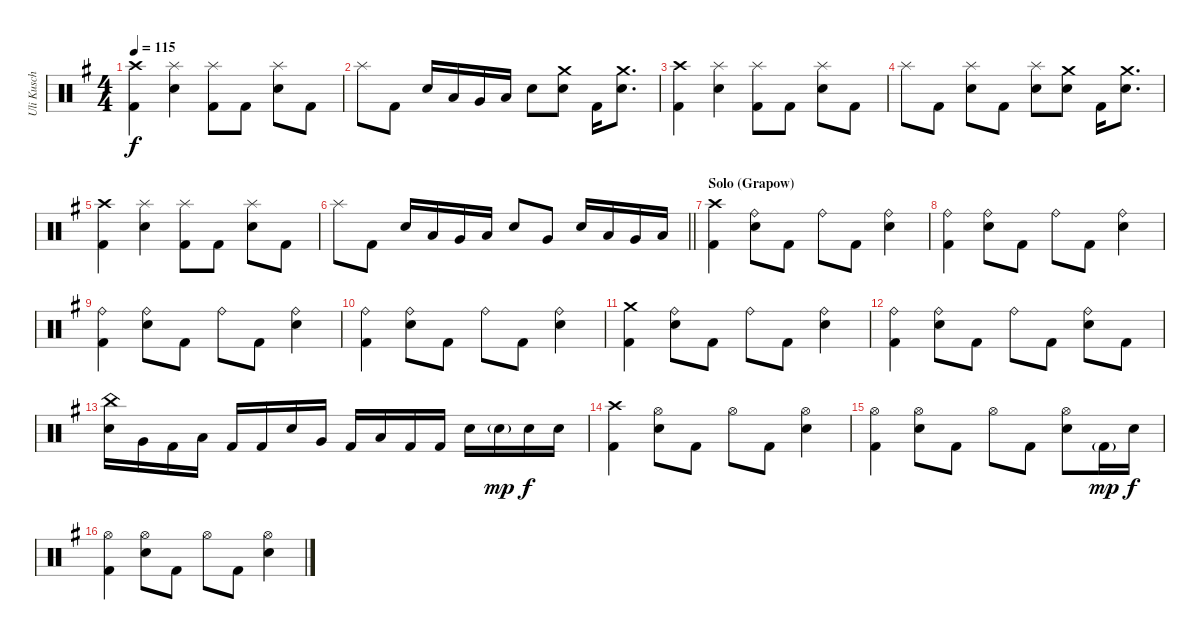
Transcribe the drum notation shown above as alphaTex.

\track ("Uli Kusch" "Uli Kusch") {instrument percussion}
\staff {score}
\articulation defaults
\ts (4 4)
\tempo 115
\clef neutral
\ks eminor
("Crash high (hit)" "Kick (hit) 2").4{dy f} ("Splash (hit)" "Snare (hit) 2").4 ("Splash (hit)" "Kick (hit) 2").8 "Kick (hit) 2".8 ("Splash (hit)" "Snare (hit) 2").8 "Kick (hit) 2".8 |
"Splash (hit)".8 "Kick (hit) 2".8 "Electric Snare (hit)".16 "Low Tom (hit)".16 "Very Low Tom (hit)".16 "Low Floor Tom (hit)".16 "Electric Snare (hit)".8 ("Crash medium (hit)" "Snare (hit) 2").8 "Kick (hit) 2".16 ("Crash medium (hit)" "Snare (hit) 2").8{d} |
("Crash high (hit)" "Kick (hit) 2").4 ("Splash (hit)" "Snare (hit) 2").4 ("Splash (hit)" "Kick (hit) 2").8 "Kick (hit) 2".8 ("Splash (hit)" "Snare (hit) 2").8 "Kick (hit) 2".8 |
"Splash (hit)".8 "Kick (hit) 2".8 ("Splash (hit)" "Snare (hit) 2").8 "Kick (hit) 2".8 ("Splash (hit)" "Snare (hit) 2").8 ("Crash medium (hit)" "Snare (hit) 2").8 "Kick (hit) 2".16 ("Crash medium (hit)" "Snare (hit) 2").8{d} |
("Crash high (hit)" "Kick (hit) 2").4 ("Splash (hit)" "Snare (hit) 2").4 ("Splash (hit)" "Kick (hit) 2").8 "Kick (hit) 2".8 ("Splash (hit)" "Snare (hit) 2").8 "Kick (hit) 2".8 |
\barLineRight lightlight "Splash (hit)".8 "Kick (hit) 2".8 "Electric Snare (hit)".16 "Low Tom (hit)".16 "Very Low Tom (hit)".16 "Low Floor Tom (hit)".16 "Electric Snare (hit)".8 "Very Low Tom (hit)".8 "Electric Snare (hit)".16 "Low Tom (hit)".16 "Very Low Tom (hit)".16 "Low Floor Tom (hit)".16
|
\section ("" "Solo (Grapow)")
("Crash high (hit)" "Kick (hit) 2").4 ("Ride (bell)" "Snare (hit) 2").8 "Kick (hit) 2".8 "Ride (bell)".8 "Kick (hit) 2".8 ("Ride (bell)" "Snare (hit) 2").4 |
("Ride (bell)" "Kick (hit) 2").4 ("Ride (bell)" "Snare (hit) 2").8 "Kick (hit) 2".8 "Ride (bell)".8 "Kick (hit) 2".8 ("Ride (bell)" "Snare (hit) 2").4 |
("Ride (bell)" "Kick (hit) 2").4 ("Ride (bell)" "Snare (hit) 2").8 "Kick (hit) 2".8 "Ride (bell)".8 "Kick (hit) 2".8 ("Ride (bell)" "Snare (hit) 2").4 |
("Ride (bell)" "Kick (hit) 2").4 ("Ride (bell)" "Snare (hit) 2").8 "Kick (hit) 2".8 "Ride (bell)".8 "Kick (hit) 2".8 ("Ride (bell)" "Snare (hit) 2").4 |
("Crash medium (hit)" "Kick (hit) 2").4 ("Ride (bell)" "Snare (hit) 2").8 "Kick (hit) 2".8 "Ride (bell)".8 "Kick (hit) 2".8 ("Ride (bell)" "Snare (hit) 2").4 |
("Ride (bell)" "Kick (hit) 2").4 ("Ride (bell)" "Snare (hit) 2").8 "Kick (hit) 2".8 "Ride (bell)".8 "Kick (hit) 2".8 ("Ride (bell)" "Snare (hit) 2").8 "Kick (hit) 2".8 |
("China (hit)" "Snare (hit) 2").16 "Very Low Tom (hit)".16 "Kick (hit) 2".16 "Low Floor Tom (hit)".16 "Kick (hit) 2".16 "Kick (hit) 2".16 "Snare (hit) 2".16 "Very Low Tom (hit)".16 "Kick (hit) 2".16 "Low Floor Tom (hit)".16 "Kick (hit) 2".16 "Kick (hit) 2".16 "Snare (hit) 2".16 "Snare (hit) 2"{g}.16{dy mp} "Snare (hit) 2".16{dy f} "Snare (hit) 2".16 |
("Crash high (hit)" "Kick (hit) 2").4 ("Hi-Hat (open)" "Snare (hit) 2").8 "Kick (hit) 2".8 "Hi-Hat (open)".8 "Kick (hit) 2".8 ("Hi-Hat (open)" "Snare (hit) 2").4 |
("Hi-Hat (open)" "Kick (hit) 2").4 ("Hi-Hat (open)" "Snare (hit) 2").8 "Kick (hit) 2".8 "Hi-Hat (open)".8 "Kick (hit) 2".8 ("Hi-Hat (open)" "Snare (hit) 2").8 "Kick (hit) 2"{g}.16{dy mp} "Snare (hit) 2".16{dy f} |
("Hi-Hat (open)" "Kick (hit) 2").4 ("Hi-Hat (open)" "Snare (hit) 2").8 "Kick (hit) 2".8 "Hi-Hat (open)".8 "Kick (hit) 2".8 ("Hi-Hat (open)" "Snare (hit) 2").4
